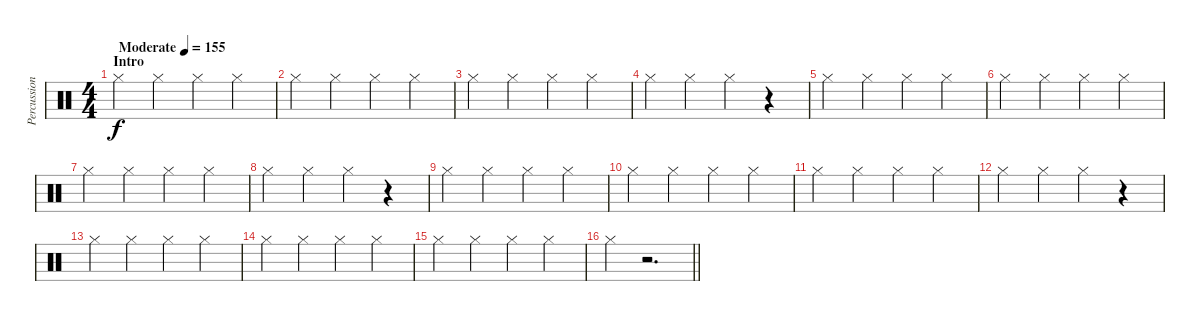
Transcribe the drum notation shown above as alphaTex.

\track ("Percussion" "Percussion") {instrument percussion}
\staff {score}
\articulation defaults
\ts (4 4)
\section ("" "Intro")
\tempo (155 "Moderate")
\clef neutral
\ks c "Hi-Hat (closed)".4{dy f} "Hi-Hat (closed)".4 "Hi-Hat (closed)".4 "Hi-Hat (closed)".4
|
"Hi-Hat (closed)".4 "Hi-Hat (closed)".4 "Hi-Hat (closed)".4 "Hi-Hat (closed)".4 |
"Hi-Hat (closed)".4 "Hi-Hat (closed)".4 "Hi-Hat (closed)".4 "Hi-Hat (closed)".4 |
"Hi-Hat (closed)".4 "Hi-Hat (closed)".4 "Hi-Hat (closed)".4 r.4 |
"Hi-Hat (closed)".4 "Hi-Hat (closed)".4 "Hi-Hat (closed)".4 "Hi-Hat (closed)".4 |
"Hi-Hat (closed)".4 "Hi-Hat (closed)".4 "Hi-Hat (closed)".4 "Hi-Hat (closed)".4 |
"Hi-Hat (closed)".4 "Hi-Hat (closed)".4 "Hi-Hat (closed)".4 "Hi-Hat (closed)".4 |
"Hi-Hat (closed)".4 "Hi-Hat (closed)".4 "Hi-Hat (closed)".4 r.4 |
"Hi-Hat (closed)".4 "Hi-Hat (closed)".4 "Hi-Hat (closed)".4 "Hi-Hat (closed)".4 |
"Hi-Hat (closed)".4 "Hi-Hat (closed)".4 "Hi-Hat (closed)".4 "Hi-Hat (closed)".4 |
"Hi-Hat (closed)".4 "Hi-Hat (closed)".4 "Hi-Hat (closed)".4 "Hi-Hat (closed)".4 |
"Hi-Hat (closed)".4 "Hi-Hat (closed)".4 "Hi-Hat (closed)".4 r.4 |
"Hi-Hat (closed)".4 "Hi-Hat (closed)".4 "Hi-Hat (closed)".4 "Hi-Hat (closed)".4 |
"Hi-Hat (closed)".4 "Hi-Hat (closed)".4 "Hi-Hat (closed)".4 "Hi-Hat (closed)".4 |
"Hi-Hat (closed)".4 "Hi-Hat (closed)".4 "Hi-Hat (closed)".4 "Hi-Hat (closed)".4 |
\barLineRight lightlight "Hi-Hat (closed)".4
r.2{d}
